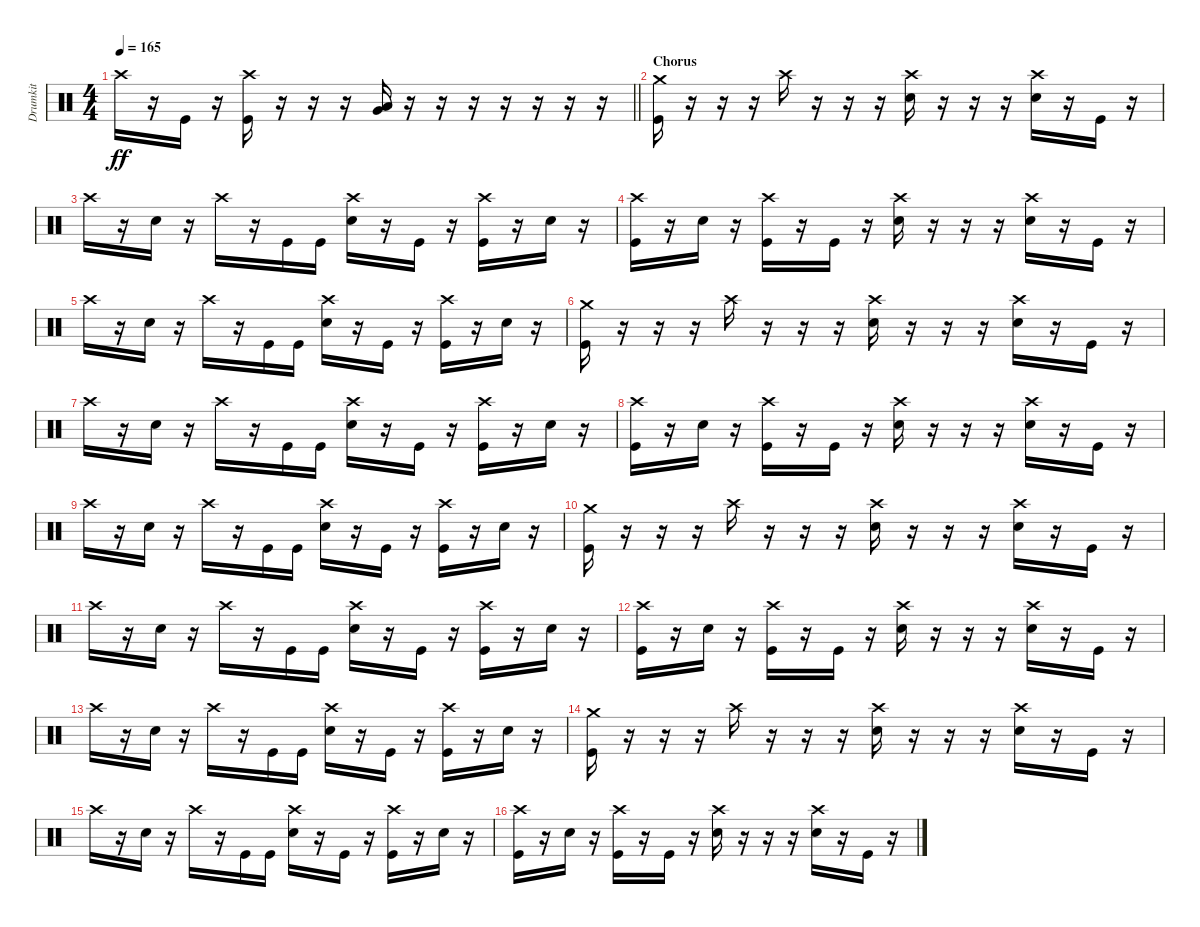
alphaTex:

\track ("Drumkit" "Drumkit") {instrument percussion}
\staff {score}
\articulation defaults
\ts (4 4)
\tempo 165
\clef neutral
\barLineRight lightlight
\ks c "Crash high (hit)".16{dy ff}
r.16 "Kick (hit)".16 r.16 ("Crash high (hit)" "Kick (hit)").16 r.16 r.16 r.16 ("Low Floor Tom (hit)" "Very Low Tom (hit)").16 r.16 r.16 r.16 r.16 r.16 r.16 r.16 |
\section ("" "Chorus")
("Crash medium (hit)" "Kick (hit)").16 r.16 r.16 r.16 "Crash high (hit)".16 r.16 r.16 r.16 ("Crash high (hit)" "Snare (hit) 2").16 r.16 r.16 r.16 ("Crash high (hit)" "Snare (hit) 2").16 r.16 "Kick (hit)".16 r.16 |
"Crash high (hit)".16 r.16 "Snare (hit) 2".16 r.16 "Crash high (hit)".16 r.16 "Kick (hit)".16 "Kick (hit)".16 ("Crash high (hit)" "Snare (hit) 2").16 r.16 "Kick (hit)".16 r.16 ("Crash high (hit)" "Kick (hit)").16 r.16 "Snare (hit) 2".16 r.16 |
("Crash high (hit)" "Kick (hit)").16 r.16 "Snare (hit) 2".16 r.16 ("Crash high (hit)" "Kick (hit)").16 r.16 "Kick (hit)".16 r.16 ("Crash high (hit)" "Snare (hit) 2").16 r.16 r.16 r.16 ("Crash high (hit)" "Snare (hit) 2").16 r.16 "Kick (hit)".16 r.16 |
"Crash high (hit)".16 r.16 "Snare (hit) 2".16 r.16 "Crash high (hit)".16 r.16 "Kick (hit)".16 "Kick (hit)".16 ("Crash high (hit)" "Snare (hit) 2").16 r.16 "Kick (hit)".16 r.16 ("Crash high (hit)" "Kick (hit)").16 r.16 "Snare (hit) 2".16 r.16 |
("Crash medium (hit)" "Kick (hit)").16 r.16 r.16 r.16 "Crash high (hit)".16 r.16 r.16 r.16 ("Crash high (hit)" "Snare (hit) 2").16 r.16 r.16 r.16 ("Crash high (hit)" "Snare (hit) 2").16 r.16 "Kick (hit)".16 r.16 |
"Crash high (hit)".16 r.16 "Snare (hit) 2".16 r.16 "Crash high (hit)".16 r.16 "Kick (hit)".16 "Kick (hit)".16 ("Crash high (hit)" "Snare (hit) 2").16 r.16 "Kick (hit)".16 r.16 ("Crash high (hit)" "Kick (hit)").16 r.16 "Snare (hit) 2".16 r.16 |
("Crash high (hit)" "Kick (hit)").16 r.16 "Snare (hit) 2".16 r.16 ("Crash high (hit)" "Kick (hit)").16 r.16 "Kick (hit)".16 r.16 ("Crash high (hit)" "Snare (hit) 2").16 r.16 r.16 r.16 ("Crash high (hit)" "Snare (hit) 2").16 r.16 "Kick (hit)".16 r.16 |
"Crash high (hit)".16 r.16 "Snare (hit) 2".16 r.16 "Crash high (hit)".16 r.16 "Kick (hit)".16 "Kick (hit)".16 ("Crash high (hit)" "Snare (hit) 2").16 r.16 "Kick (hit)".16 r.16 ("Crash high (hit)" "Kick (hit)").16 r.16 "Snare (hit) 2".16 r.16 |
("Crash medium (hit)" "Kick (hit)").16 r.16 r.16 r.16 "Crash high (hit)".16 r.16 r.16 r.16 ("Crash high (hit)" "Snare (hit) 2").16 r.16 r.16 r.16 ("Crash high (hit)" "Snare (hit) 2").16 r.16 "Kick (hit)".16 r.16 |
"Crash high (hit)".16 r.16 "Snare (hit) 2".16 r.16 "Crash high (hit)".16 r.16 "Kick (hit)".16 "Kick (hit)".16 ("Crash high (hit)" "Snare (hit) 2").16 r.16 "Kick (hit)".16 r.16 ("Crash high (hit)" "Kick (hit)").16 r.16 "Snare (hit) 2".16 r.16 |
("Crash high (hit)" "Kick (hit)").16 r.16 "Snare (hit) 2".16 r.16 ("Crash high (hit)" "Kick (hit)").16 r.16 "Kick (hit)".16 r.16 ("Crash high (hit)" "Snare (hit) 2").16 r.16 r.16 r.16 ("Crash high (hit)" "Snare (hit) 2").16 r.16 "Kick (hit)".16 r.16 |
"Crash high (hit)".16 r.16 "Snare (hit) 2".16 r.16 "Crash high (hit)".16 r.16 "Kick (hit)".16 "Kick (hit)".16 ("Crash high (hit)" "Snare (hit) 2").16 r.16 "Kick (hit)".16 r.16 ("Crash high (hit)" "Kick (hit)").16 r.16 "Snare (hit) 2".16 r.16 |
("Crash medium (hit)" "Kick (hit)").16 r.16 r.16 r.16 "Crash high (hit)".16 r.16 r.16 r.16 ("Crash high (hit)" "Snare (hit) 2").16 r.16 r.16 r.16 ("Crash high (hit)" "Snare (hit) 2").16 r.16 "Kick (hit)".16 r.16 |
"Crash high (hit)".16 r.16 "Snare (hit) 2".16 r.16 "Crash high (hit)".16 r.16 "Kick (hit)".16 "Kick (hit)".16 ("Crash high (hit)" "Snare (hit) 2").16 r.16 "Kick (hit)".16 r.16 ("Crash high (hit)" "Kick (hit)").16 r.16 "Snare (hit) 2".16 r.16 |
("Crash high (hit)" "Kick (hit)").16 r.16 "Snare (hit) 2".16 r.16 ("Crash high (hit)" "Kick (hit)").16 r.16 "Kick (hit)".16 r.16 ("Crash high (hit)" "Snare (hit) 2").16 r.16 r.16 r.16 ("Crash high (hit)" "Snare (hit) 2").16 r.16 "Kick (hit)".16 r.16
